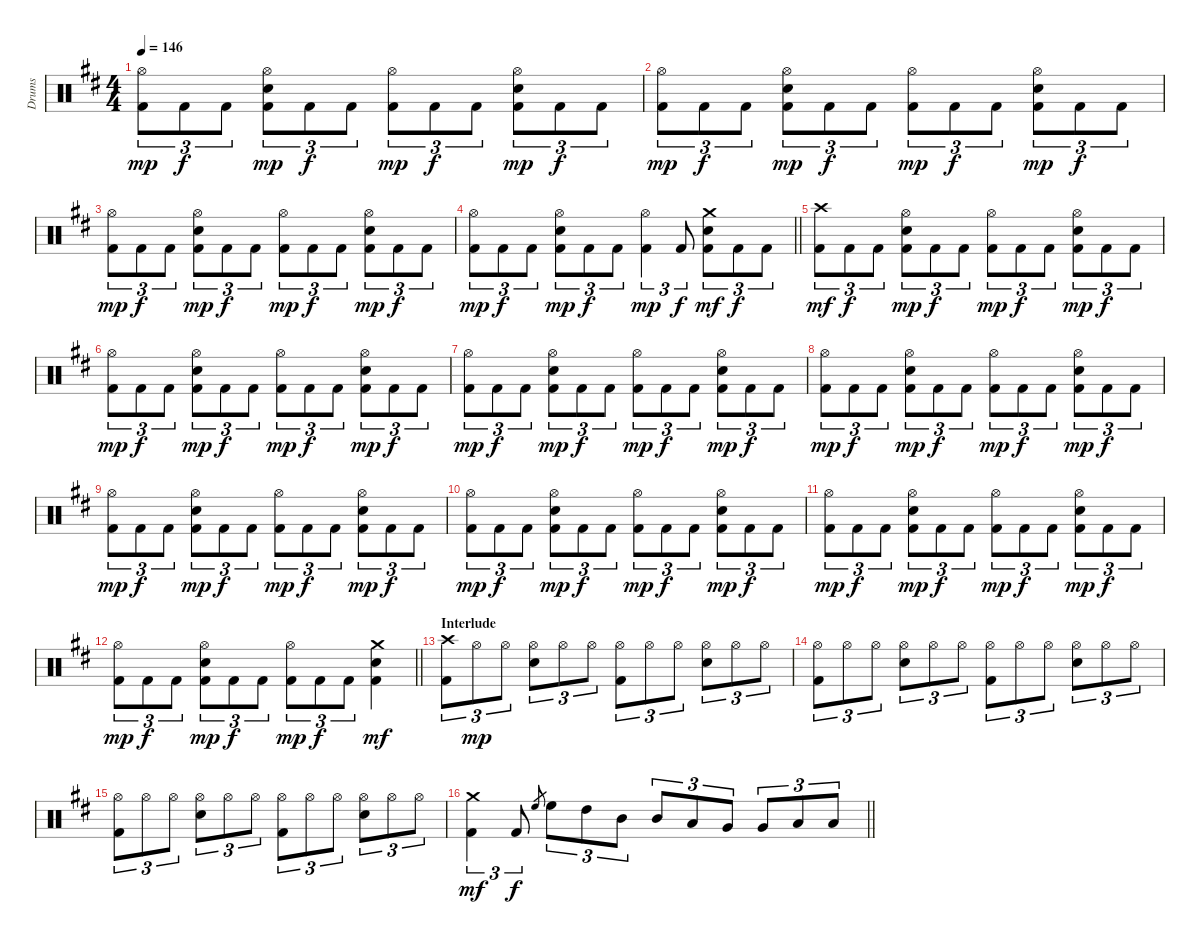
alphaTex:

\track ("Drums" "Drums") {instrument percussion}
\staff {score}
\articulation defaults
\ts (4 4)
\tempo 146
\clef neutral
\ks bminor
("Hi-Hat (open)" "Kick (hit) 2").8{tu (3 2) dy mp} "Kick (hit) 2".8{tu (3 2) dy f} "Kick (hit) 2".8{tu (3 2)} ("Hi-Hat (open)" "Electric Snare (hit)" "Kick (hit) 2").8{tu (3 2) dy mp} "Kick (hit) 2".8{tu (3 2) dy f} "Kick (hit) 2".8{tu (3 2)} ("Hi-Hat (open)" "Kick (hit) 2").8{tu (3 2) dy mp} "Kick (hit) 2".8{tu (3 2) dy f} "Kick (hit) 2".8{tu (3 2)} ("Hi-Hat (open)" "Electric Snare (hit)" "Kick (hit) 2").8{tu (3 2) dy mp} "Kick (hit) 2".8{tu (3 2) dy f} "Kick (hit) 2".8{tu (3 2)} |
("Hi-Hat (open)" "Kick (hit) 2").8{tu (3 2) dy mp} "Kick (hit) 2".8{tu (3 2) dy f} "Kick (hit) 2".8{tu (3 2)} ("Hi-Hat (open)" "Electric Snare (hit)" "Kick (hit) 2").8{tu (3 2) dy mp} "Kick (hit) 2".8{tu (3 2) dy f} "Kick (hit) 2".8{tu (3 2)} ("Hi-Hat (open)" "Kick (hit) 2").8{tu (3 2) dy mp} "Kick (hit) 2".8{tu (3 2) dy f} "Kick (hit) 2".8{tu (3 2)} ("Hi-Hat (open)" "Electric Snare (hit)" "Kick (hit) 2").8{tu (3 2) dy mp} "Kick (hit) 2".8{tu (3 2) dy f} "Kick (hit) 2".8{tu (3 2)} |
("Hi-Hat (open)" "Kick (hit) 2").8{tu (3 2) dy mp} "Kick (hit) 2".8{tu (3 2) dy f} "Kick (hit) 2".8{tu (3 2)} ("Hi-Hat (open)" "Electric Snare (hit)" "Kick (hit) 2").8{tu (3 2) dy mp} "Kick (hit) 2".8{tu (3 2) dy f} "Kick (hit) 2".8{tu (3 2)} ("Hi-Hat (open)" "Kick (hit) 2").8{tu (3 2) dy mp} "Kick (hit) 2".8{tu (3 2) dy f} "Kick (hit) 2".8{tu (3 2)} ("Hi-Hat (open)" "Electric Snare (hit)" "Kick (hit) 2").8{tu (3 2) dy mp} "Kick (hit) 2".8{tu (3 2) dy f} "Kick (hit) 2".8{tu (3 2)} |
\barLineRight lightlight
("Hi-Hat (open)" "Kick (hit) 2").8{tu (3 2) dy mp} "Kick (hit) 2".8{tu (3 2) dy f} "Kick (hit) 2".8{tu (3 2)} ("Hi-Hat (open)" "Electric Snare (hit)" "Kick (hit) 2").8{tu (3 2) dy mp} "Kick (hit) 2".8{tu (3 2) dy f} "Kick (hit) 2".8{tu (3 2)} ("Hi-Hat (open)" "Kick (hit) 2").4{tu (3 2) dy mp} "Kick (hit) 2".8{tu (3 2) dy f} ("Crash medium (hit)" "Electric Snare (hit)" "Kick (hit) 2").8{tu (3 2) dy mf} "Kick (hit) 2".8{tu (3 2) dy f} "Kick (hit) 2".8{tu (3 2)} |
\section ("" "")
("Crash high (hit)" "Kick (hit) 2").8{tu (3 2) dy mf} "Kick (hit) 2".8{tu (3 2) dy f} "Kick (hit) 2".8{tu (3 2)} ("Hi-Hat (open)" "Electric Snare (hit)" "Kick (hit) 2").8{tu (3 2) dy mp} "Kick (hit) 2".8{tu (3 2) dy f} "Kick (hit) 2".8{tu (3 2)} ("Hi-Hat (open)" "Kick (hit) 2").8{tu (3 2) dy mp} "Kick (hit) 2".8{tu (3 2) dy f} "Kick (hit) 2".8{tu (3 2)} ("Hi-Hat (open)" "Electric Snare (hit)" "Kick (hit) 2").8{tu (3 2) dy mp} "Kick (hit) 2".8{tu (3 2) dy f} "Kick (hit) 2".8{tu (3 2)} |
("Hi-Hat (open)" "Kick (hit) 2").8{tu (3 2) dy mp} "Kick (hit) 2".8{tu (3 2) dy f} "Kick (hit) 2".8{tu (3 2)} ("Hi-Hat (open)" "Electric Snare (hit)" "Kick (hit) 2").8{tu (3 2) dy mp} "Kick (hit) 2".8{tu (3 2) dy f} "Kick (hit) 2".8{tu (3 2)} ("Hi-Hat (open)" "Kick (hit) 2").8{tu (3 2) dy mp} "Kick (hit) 2".8{tu (3 2) dy f} "Kick (hit) 2".8{tu (3 2)} ("Hi-Hat (open)" "Electric Snare (hit)" "Kick (hit) 2").8{tu (3 2) dy mp} "Kick (hit) 2".8{tu (3 2) dy f} "Kick (hit) 2".8{tu (3 2)} |
("Hi-Hat (open)" "Kick (hit) 2").8{tu (3 2) dy mp} "Kick (hit) 2".8{tu (3 2) dy f} "Kick (hit) 2".8{tu (3 2)} ("Hi-Hat (open)" "Electric Snare (hit)" "Kick (hit) 2").8{tu (3 2) dy mp} "Kick (hit) 2".8{tu (3 2) dy f} "Kick (hit) 2".8{tu (3 2)} ("Hi-Hat (open)" "Kick (hit) 2").8{tu (3 2) dy mp} "Kick (hit) 2".8{tu (3 2) dy f} "Kick (hit) 2".8{tu (3 2)} ("Hi-Hat (open)" "Electric Snare (hit)" "Kick (hit) 2").8{tu (3 2) dy mp} "Kick (hit) 2".8{tu (3 2) dy f} "Kick (hit) 2".8{tu (3 2)} |
("Hi-Hat (open)" "Kick (hit) 2").8{tu (3 2) dy mp} "Kick (hit) 2".8{tu (3 2) dy f} "Kick (hit) 2".8{tu (3 2)} ("Hi-Hat (open)" "Electric Snare (hit)" "Kick (hit) 2").8{tu (3 2) dy mp} "Kick (hit) 2".8{tu (3 2) dy f} "Kick (hit) 2".8{tu (3 2)} ("Hi-Hat (open)" "Kick (hit) 2").8{tu (3 2) dy mp} "Kick (hit) 2".8{tu (3 2) dy f} "Kick (hit) 2".8{tu (3 2)} ("Hi-Hat (open)" "Electric Snare (hit)" "Kick (hit) 2").8{tu (3 2) dy mp} "Kick (hit) 2".8{tu (3 2) dy f} "Kick (hit) 2".8{tu (3 2)} |
("Hi-Hat (open)" "Kick (hit) 2").8{tu (3 2) dy mp} "Kick (hit) 2".8{tu (3 2) dy f} "Kick (hit) 2".8{tu (3 2)} ("Hi-Hat (open)" "Electric Snare (hit)" "Kick (hit) 2").8{tu (3 2) dy mp} "Kick (hit) 2".8{tu (3 2) dy f} "Kick (hit) 2".8{tu (3 2)} ("Hi-Hat (open)" "Kick (hit) 2").8{tu (3 2) dy mp} "Kick (hit) 2".8{tu (3 2) dy f} "Kick (hit) 2".8{tu (3 2)} ("Hi-Hat (open)" "Electric Snare (hit)" "Kick (hit) 2").8{tu (3 2) dy mp} "Kick (hit) 2".8{tu (3 2) dy f} "Kick (hit) 2".8{tu (3 2)} |
("Hi-Hat (open)" "Kick (hit) 2").8{tu (3 2) dy mp} "Kick (hit) 2".8{tu (3 2) dy f} "Kick (hit) 2".8{tu (3 2)} ("Hi-Hat (open)" "Electric Snare (hit)" "Kick (hit) 2").8{tu (3 2) dy mp} "Kick (hit) 2".8{tu (3 2) dy f} "Kick (hit) 2".8{tu (3 2)} ("Hi-Hat (open)" "Kick (hit) 2").8{tu (3 2) dy mp} "Kick (hit) 2".8{tu (3 2) dy f} "Kick (hit) 2".8{tu (3 2)} ("Hi-Hat (open)" "Electric Snare (hit)" "Kick (hit) 2").8{tu (3 2) dy mp} "Kick (hit) 2".8{tu (3 2) dy f} "Kick (hit) 2".8{tu (3 2)} |
("Hi-Hat (open)" "Kick (hit) 2").8{tu (3 2) dy mp} "Kick (hit) 2".8{tu (3 2) dy f} "Kick (hit) 2".8{tu (3 2)} ("Hi-Hat (open)" "Electric Snare (hit)" "Kick (hit) 2").8{tu (3 2) dy mp} "Kick (hit) 2".8{tu (3 2) dy f} "Kick (hit) 2".8{tu (3 2)} ("Hi-Hat (open)" "Kick (hit) 2").8{tu (3 2) dy mp} "Kick (hit) 2".8{tu (3 2) dy f} "Kick (hit) 2".8{tu (3 2)} ("Hi-Hat (open)" "Electric Snare (hit)" "Kick (hit) 2").8{tu (3 2) dy mp} "Kick (hit) 2".8{tu (3 2) dy f} "Kick (hit) 2".8{tu (3 2)} |
\barLineRight lightlight
("Hi-Hat (open)" "Kick (hit) 2").8{tu (3 2) dy mp} "Kick (hit) 2".8{tu (3 2) dy f} "Kick (hit) 2".8{tu (3 2)} ("Hi-Hat (open)" "Electric Snare (hit)" "Kick (hit) 2").8{tu (3 2) dy mp} "Kick (hit) 2".8{tu (3 2) dy f} "Kick (hit) 2".8{tu (3 2)} ("Hi-Hat (open)" "Kick (hit) 2").8{tu (3 2) dy mp} "Kick (hit) 2".8{tu (3 2) dy f} "Kick (hit) 2".8{tu (3 2)} ("Crash medium (hit)" "Electric Snare (hit)" "Kick (hit) 2").4{dy mf} |
\section ("" "Interlude")
("Crash high (hit)" "Kick (hit) 2").8{tu (3 2)} "Hi-Hat (open)".8{tu (3 2) dy mp} "Hi-Hat (open)".8{tu (3 2)} ("Hi-Hat (open)" "Electric Snare (hit)").8{tu (3 2)} "Hi-Hat (open)".8{tu (3 2)} "Hi-Hat (open)".8{tu (3 2)} ("Hi-Hat (open)" "Kick (hit) 2").8{tu (3 2)} "Hi-Hat (open)".8{tu (3 2)} "Hi-Hat (open)".8{tu (3 2)} ("Hi-Hat (open)" "Electric Snare (hit)").8{tu (3 2)} "Hi-Hat (open)".8{tu (3 2)} "Hi-Hat (open)".8{tu (3 2)} |
("Hi-Hat (open)" "Kick (hit) 2").8{tu (3 2)} "Hi-Hat (open)".8{tu (3 2)} "Hi-Hat (open)".8{tu (3 2)} ("Hi-Hat (open)" "Electric Snare (hit)").8{tu (3 2)} "Hi-Hat (open)".8{tu (3 2)} "Hi-Hat (open)".8{tu (3 2)} ("Hi-Hat (open)" "Kick (hit) 2").8{tu (3 2)} "Hi-Hat (open)".8{tu (3 2)} "Hi-Hat (open)".8{tu (3 2)} ("Hi-Hat (open)" "Electric Snare (hit)").8{tu (3 2)} "Hi-Hat (open)".8{tu (3 2)} "Hi-Hat (open)".8{tu (3 2)} |
("Hi-Hat (open)" "Kick (hit) 2").8{tu (3 2)} "Hi-Hat (open)".8{tu (3 2)} "Hi-Hat (open)".8{tu (3 2)} ("Hi-Hat (open)" "Electric Snare (hit)").8{tu (3 2)} "Hi-Hat (open)".8{tu (3 2)} "Hi-Hat (open)".8{tu (3 2)} ("Hi-Hat (open)" "Kick (hit) 2").8{tu (3 2)} "Hi-Hat (open)".8{tu (3 2)} "Hi-Hat (open)".8{tu (3 2)} ("Hi-Hat (open)" "Electric Snare (hit)").8{tu (3 2)} "Hi-Hat (open)".8{tu (3 2)} "Hi-Hat (open)".8{tu (3 2)} |
\barLineRight lightlight
("Crash medium (hit)" "Kick (hit) 2").4{tu (3 2) dy mf} "Kick (hit) 2".8{tu (3 2) dy f} "High Floor Tom (hit)".8{gr} "High Floor Tom (hit)".8{tu (3 2)} "High Tom (hit)".8{tu (3 2)} "Mid Tom (hit)".8{tu (3 2)} "Mid Tom (hit)".8{tu (3 2)} "Low Tom (hit)".8{tu (3 2)} "Very Low Tom (hit)".8{tu (3 2)} "Very Low Tom (hit)".8{tu (3 2)} "Low Floor Tom (hit)".8{tu (3 2)} "Low Floor Tom (hit)".8{tu (3 2)}
